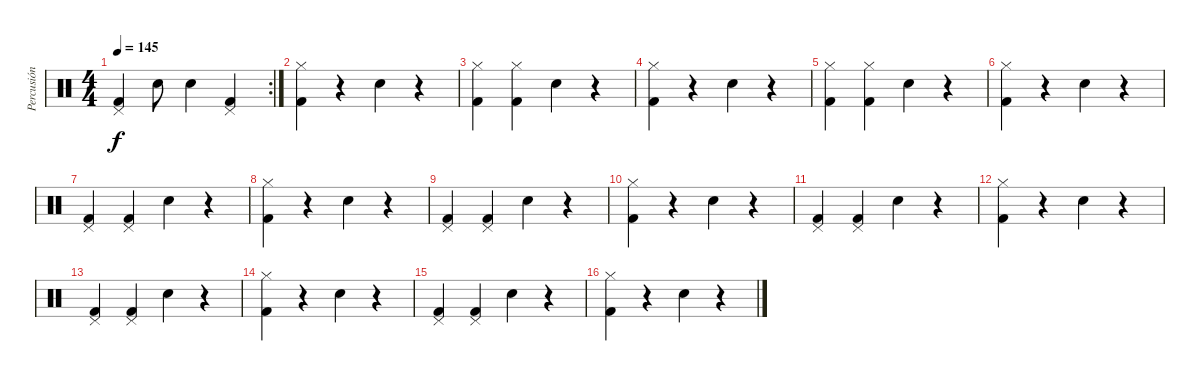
\track ("Percusión" "Percusión") {instrument percussion}
\staff {score}
\articulation defaults
\rc 2
\ts (4 4)
\tempo 145
\clef neutral
\ks c
("Pedal Hi-Hat (hit)" "Kick (hit) 2").4{dy f} "Electric Snare (hit)".8 "Electric Snare (hit)".4 ("Pedal Hi-Hat (hit)" "Kick (hit) 2").4 |
("Hi-Hat (closed)" "Kick (hit) 2").4 r.4 "Electric Snare (hit)".4 r.4 |
("Hi-Hat (closed)" "Kick (hit) 2").4 ("Hi-Hat (closed)" "Kick (hit) 2").4 "Electric Snare (hit)".4 r.4 |
("Hi-Hat (closed)" "Kick (hit) 2").4 r.4 "Electric Snare (hit)".4 r.4 |
("Hi-Hat (closed)" "Kick (hit) 2").4 ("Hi-Hat (closed)" "Kick (hit) 2").4 "Electric Snare (hit)".4 r.4 |
("Hi-Hat (closed)" "Kick (hit) 2").4 r.4 "Electric Snare (hit)".4 r.4 |
("Pedal Hi-Hat (hit)" "Kick (hit) 2").4 ("Pedal Hi-Hat (hit)" "Kick (hit) 2").4 "Electric Snare (hit)".4 r.4 |
("Hi-Hat (closed)" "Kick (hit) 2").4 r.4 "Electric Snare (hit)".4 r.4 |
("Pedal Hi-Hat (hit)" "Kick (hit) 2").4 ("Pedal Hi-Hat (hit)" "Kick (hit) 2").4 "Electric Snare (hit)".4 r.4 |
("Hi-Hat (closed)" "Kick (hit) 2").4 r.4 "Electric Snare (hit)".4 r.4 |
("Pedal Hi-Hat (hit)" "Kick (hit) 2").4 ("Pedal Hi-Hat (hit)" "Kick (hit) 2").4 "Electric Snare (hit)".4 r.4 |
("Hi-Hat (closed)" "Kick (hit) 2").4 r.4 "Electric Snare (hit)".4 r.4 |
("Pedal Hi-Hat (hit)" "Kick (hit) 2").4 ("Pedal Hi-Hat (hit)" "Kick (hit) 2").4 "Electric Snare (hit)".4 r.4 |
("Hi-Hat (closed)" "Kick (hit) 2").4 r.4 "Electric Snare (hit)".4 r.4 |
("Pedal Hi-Hat (hit)" "Kick (hit) 2").4 ("Pedal Hi-Hat (hit)" "Kick (hit) 2").4 "Electric Snare (hit)".4 r.4 |
("Hi-Hat (closed)" "Kick (hit) 2").4 r.4 "Electric Snare (hit)".4 r.4
